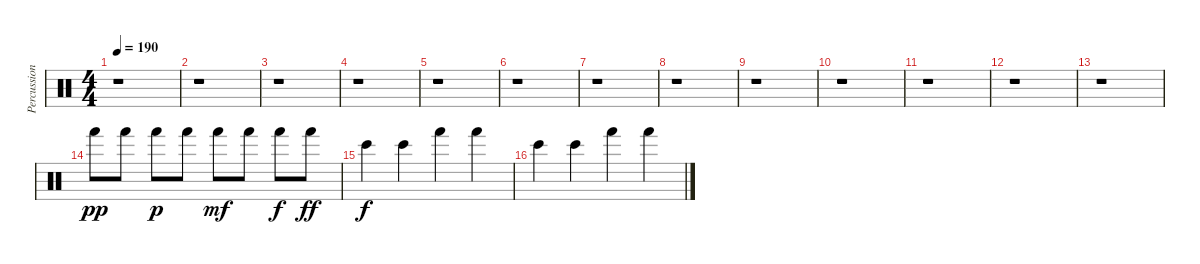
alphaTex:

\track ("Percussion" "Percussion") {instrument percussion}
\staff {score}
\articulation defaults
\ts (4 4)
\tempo 190
\clef neutral
\ks c
r.1{dy f} |
r.1 |
r.1 |
r.1 |
r.1 |
r.1 |
r.1 |
r.1 |
r.1 |
r.1 |
r.1 |
r.1 |
r.1 |
"Hand (hit)".8{dy pp} "Hand (hit)".8 "Hand (hit)".8{dy p} "Hand (hit)".8 "Hand (hit)".8{dy mf} "Hand (hit)".8 "Hand (hit)".8{dy f} "Hand (hit)".8{dy ff} |
"Bongo High (hit)".4{dy f} "Bongo High (hit)".4 "Hand (hit)".4 "Hand (hit)".4 |
"Bongo High (hit)".4 "Bongo High (hit)".4 "Hand (hit)".4 "Hand (hit)".4
